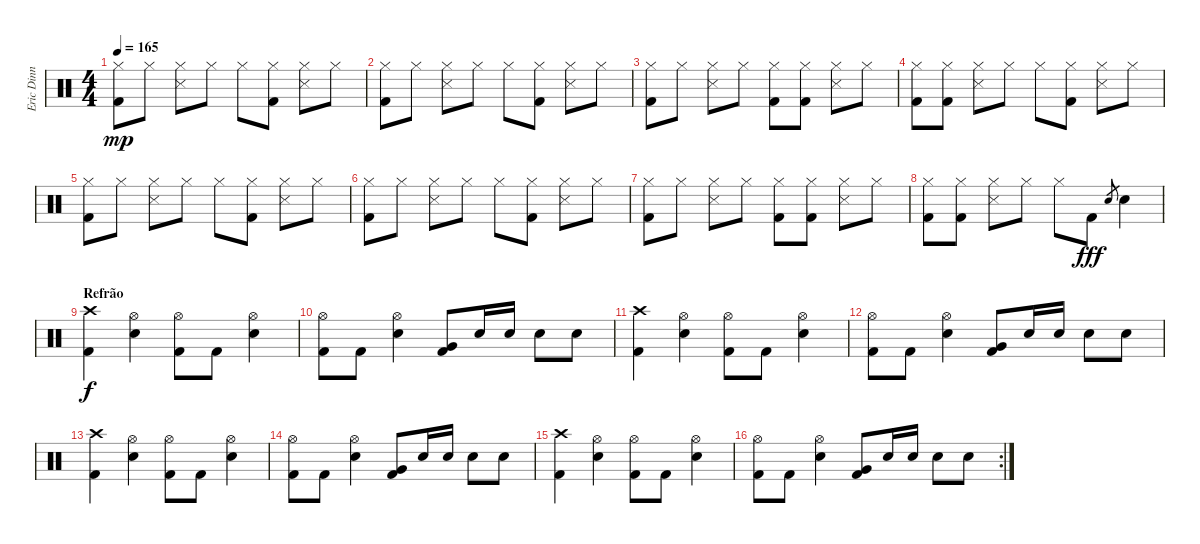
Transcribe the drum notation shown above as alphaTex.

\track ("Eric Dinn" "Eric Dinn") {instrument percussion}
\staff {score}
\articulation defaults
\ts (4 4)
\tempo 165
\clef neutral
\ks c
("Hi-Hat (closed)" "Kick (hit) 2").8{dy mp} "Hi-Hat (closed)".8 ("Hi-Hat (closed)" "Snare (side stick) 3").8 "Hi-Hat (closed)".8 "Hi-Hat (closed)".8 ("Hi-Hat (closed)" "Kick (hit) 2").8 ("Hi-Hat (closed)" "Snare (side stick) 3").8 "Hi-Hat (closed)".8 |
("Hi-Hat (closed)" "Kick (hit) 2").8 "Hi-Hat (closed)".8 ("Hi-Hat (closed)" "Snare (side stick) 3").8 "Hi-Hat (closed)".8 "Hi-Hat (closed)".8 ("Hi-Hat (closed)" "Kick (hit) 2").8 ("Hi-Hat (closed)" "Snare (side stick) 3").8 "Hi-Hat (closed)".8 |
("Hi-Hat (closed)" "Kick (hit) 2").8 "Hi-Hat (closed)".8 ("Hi-Hat (closed)" "Snare (side stick) 3").8 "Hi-Hat (closed)".8 ("Hi-Hat (closed)" "Kick (hit) 2").8 ("Hi-Hat (closed)" "Kick (hit) 2").8 ("Hi-Hat (closed)" "Snare (side stick) 3").8 "Hi-Hat (closed)".8 |
("Hi-Hat (closed)" "Kick (hit) 2").8 ("Hi-Hat (closed)" "Kick (hit) 2").8 ("Hi-Hat (closed)" "Snare (side stick) 3").8 "Hi-Hat (closed)".8 "Hi-Hat (closed)".8 ("Hi-Hat (closed)" "Kick (hit) 2").8 ("Hi-Hat (closed)" "Snare (side stick) 3").8 "Hi-Hat (closed)".8 |
("Hi-Hat (closed)" "Kick (hit) 2").8 "Hi-Hat (closed)".8 ("Hi-Hat (closed)" "Snare (side stick) 3").8 "Hi-Hat (closed)".8 "Hi-Hat (closed)".8 ("Hi-Hat (closed)" "Kick (hit) 2").8 ("Hi-Hat (closed)" "Snare (side stick) 3").8 "Hi-Hat (closed)".8 |
("Hi-Hat (closed)" "Kick (hit) 2").8 "Hi-Hat (closed)".8 ("Hi-Hat (closed)" "Snare (side stick) 3").8 "Hi-Hat (closed)".8 "Hi-Hat (closed)".8 ("Hi-Hat (closed)" "Kick (hit) 2").8 ("Hi-Hat (closed)" "Snare (side stick) 3").8 "Hi-Hat (closed)".8 |
("Hi-Hat (closed)" "Kick (hit) 2").8 "Hi-Hat (closed)".8 ("Hi-Hat (closed)" "Snare (side stick) 3").8 "Hi-Hat (closed)".8 ("Hi-Hat (closed)" "Kick (hit) 2").8 ("Hi-Hat (closed)" "Kick (hit) 2").8 ("Hi-Hat (closed)" "Snare (side stick) 3").8 "Hi-Hat (closed)".8 |
("Hi-Hat (closed)" "Kick (hit) 2").8 ("Hi-Hat (closed)" "Kick (hit) 2").8 ("Hi-Hat (closed)" "Snare (side stick) 3").8 "Hi-Hat (closed)".8 "Hi-Hat (closed)".8 "Kick (hit) 2".8{dy fff} "Snare (hit) 2".8{gr} "Snare (hit) 2".4 |
\section ("" "Refrão")
("Crash high (hit)" "Kick (hit) 2").4{dy f} ("Hi-Hat (open)" "Snare (hit) 2").4 ("Hi-Hat (open)" "Kick (hit) 2").8 "Kick (hit) 2".8 ("Hi-Hat (open)" "Snare (hit) 2").4 |
("Hi-Hat (open)" "Kick (hit) 2").8 "Kick (hit) 2".8 ("Hi-Hat (open)" "Snare (hit) 2").4 ("Very Low Tom (hit)" "Kick (hit) 2").8 "Snare (hit) 2".16 "Snare (hit) 2".16 "Snare (hit) 2".8 "Snare (hit) 2".8 |
("Crash high (hit)" "Kick (hit) 2").4 ("Hi-Hat (open)" "Snare (hit) 2").4 ("Hi-Hat (open)" "Kick (hit) 2").8 "Kick (hit) 2".8 ("Hi-Hat (open)" "Snare (hit) 2").4 |
("Hi-Hat (open)" "Kick (hit) 2").8 "Kick (hit) 2".8 ("Hi-Hat (open)" "Snare (hit) 2").4 ("Very Low Tom (hit)" "Kick (hit) 2").8 "Snare (hit) 2".16 "Snare (hit) 2".16 "Snare (hit) 2".8 "Snare (hit) 2".8 |
("Crash high (hit)" "Kick (hit) 2").4 ("Hi-Hat (open)" "Snare (hit) 2").4 ("Hi-Hat (open)" "Kick (hit) 2").8 "Kick (hit) 2".8 ("Hi-Hat (open)" "Snare (hit) 2").4 |
("Hi-Hat (open)" "Kick (hit) 2").8 "Kick (hit) 2".8 ("Hi-Hat (open)" "Snare (hit) 2").4 ("Very Low Tom (hit)" "Kick (hit) 2").8 "Snare (hit) 2".16 "Snare (hit) 2".16 "Snare (hit) 2".8 "Snare (hit) 2".8 |
("Crash high (hit)" "Kick (hit) 2").4 ("Hi-Hat (open)" "Snare (hit) 2").4 ("Hi-Hat (open)" "Kick (hit) 2").8 "Kick (hit) 2".8 ("Hi-Hat (open)" "Snare (hit) 2").4 |
\rc 2
("Hi-Hat (open)" "Kick (hit) 2").8 "Kick (hit) 2".8 ("Hi-Hat (open)" "Snare (hit) 2").4 ("Very Low Tom (hit)" "Kick (hit) 2").8 "Snare (hit) 2".16 "Snare (hit) 2".16 "Snare (hit) 2".8 "Snare (hit) 2".8
